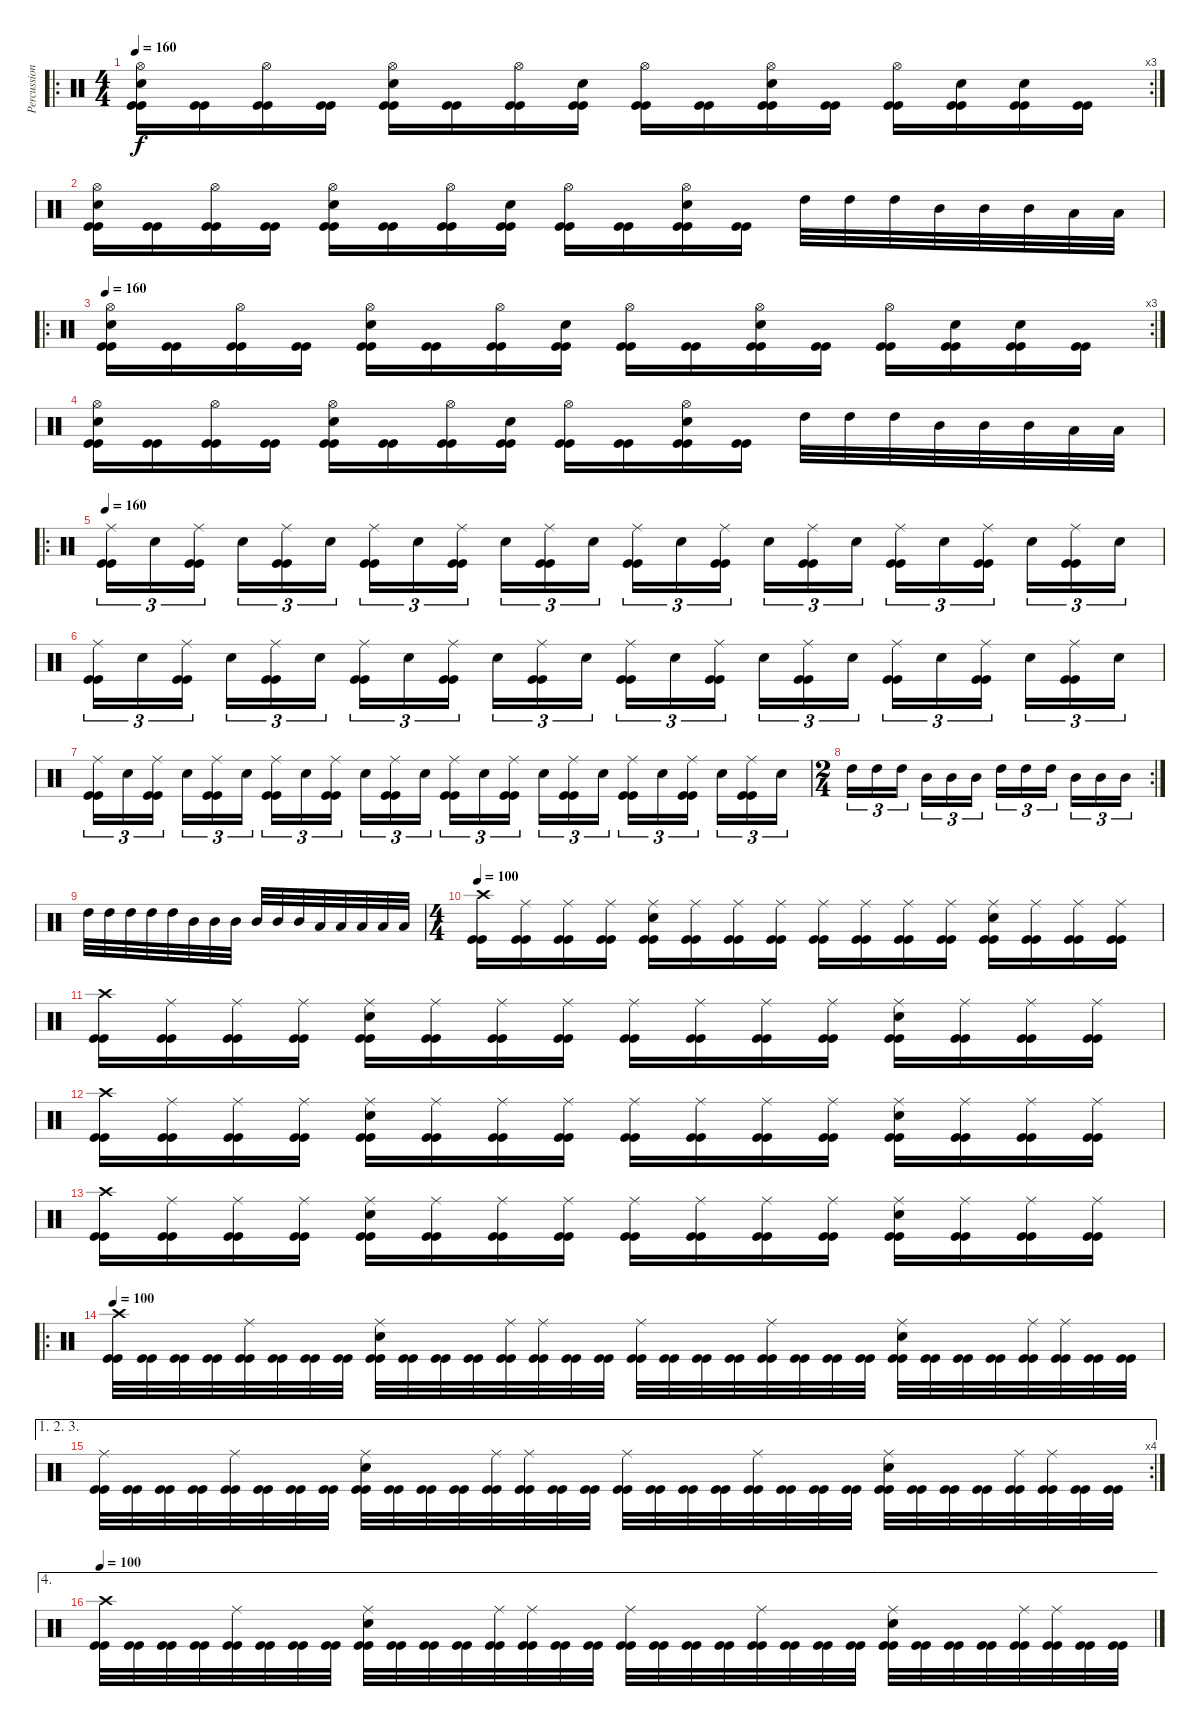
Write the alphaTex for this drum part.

\track ("Percussion" "Percussion") {instrument percussion}
\staff {score}
\articulation defaults
\ro
\rc 3
\ts (4 4)
\tempo 160
\clef neutral
\ks c
("Hi-Hat (open)" "Snare (hit) 2" "Kick (hit)" "Kick (hit)").16{dy f} ("Kick (hit)" "Kick (hit)").16 ("Hi-Hat (open)" "Kick (hit)" "Kick (hit)").16 ("Kick (hit)" "Kick (hit)").16 ("Hi-Hat (open)" "Snare (hit) 2" "Kick (hit)" "Kick (hit)").16 ("Kick (hit)" "Kick (hit)").16 ("Hi-Hat (open)" "Kick (hit)" "Kick (hit)").16 ("Snare (hit) 2" "Kick (hit)" "Kick (hit)").16 ("Hi-Hat (open)" "Kick (hit)" "Kick (hit)").16 ("Kick (hit)" "Kick (hit)").16 ("Hi-Hat (open)" "Snare (hit) 2" "Kick (hit)" "Kick (hit)").16 ("Kick (hit)" "Kick (hit)").16 ("Hi-Hat (open)" "Kick (hit)" "Kick (hit)").16 ("Snare (hit) 2" "Kick (hit)" "Kick (hit)").16 ("Snare (hit) 2" "Kick (hit)" "Kick (hit)").16 ("Kick (hit)" "Kick (hit)").16 |
("Hi-Hat (open)" "Snare (hit) 2" "Kick (hit)" "Kick (hit)").16 ("Kick (hit)" "Kick (hit)").16 ("Hi-Hat (open)" "Kick (hit)" "Kick (hit)").16 ("Kick (hit)" "Kick (hit)").16 ("Hi-Hat (open)" "Snare (hit) 2" "Kick (hit)" "Kick (hit)").16 ("Kick (hit)" "Kick (hit)").16 ("Hi-Hat (open)" "Kick (hit)" "Kick (hit)").16 ("Snare (hit) 2" "Kick (hit)" "Kick (hit)").16 ("Hi-Hat (open)" "Kick (hit)" "Kick (hit)").16 ("Kick (hit)" "Kick (hit)").16 ("Hi-Hat (open)" "Snare (hit) 2" "Kick (hit)" "Kick (hit)").16 ("Kick (hit)" "Kick (hit)").16 "High Tom (hit)".32 "High Tom (hit)".32 "High Tom (hit)".32 "Mid Tom (hit)".32 "Mid Tom (hit)".32 "Mid Tom (hit)".32 "Low Tom (hit)".32 "Low Tom (hit)".32 |
\ro
\rc 3
\tempo 160
("Hi-Hat (open)" "Snare (hit) 2" "Kick (hit)" "Kick (hit)").16 ("Kick (hit)" "Kick (hit)").16 ("Hi-Hat (open)" "Kick (hit)" "Kick (hit)").16 ("Kick (hit)" "Kick (hit)").16 ("Hi-Hat (open)" "Snare (hit) 2" "Kick (hit)" "Kick (hit)").16 ("Kick (hit)" "Kick (hit)").16 ("Hi-Hat (open)" "Kick (hit)" "Kick (hit)").16 ("Snare (hit) 2" "Kick (hit)" "Kick (hit)").16 ("Hi-Hat (open)" "Kick (hit)" "Kick (hit)").16 ("Kick (hit)" "Kick (hit)").16 ("Hi-Hat (open)" "Snare (hit) 2" "Kick (hit)" "Kick (hit)").16 ("Kick (hit)" "Kick (hit)").16 ("Hi-Hat (open)" "Kick (hit)" "Kick (hit)").16 ("Snare (hit) 2" "Kick (hit)" "Kick (hit)").16 ("Snare (hit) 2" "Kick (hit)" "Kick (hit)").16 ("Kick (hit)" "Kick (hit)").16 |
("Hi-Hat (open)" "Snare (hit) 2" "Kick (hit)" "Kick (hit)").16 ("Kick (hit)" "Kick (hit)").16 ("Hi-Hat (open)" "Kick (hit)" "Kick (hit)").16 ("Kick (hit)" "Kick (hit)").16 ("Hi-Hat (open)" "Snare (hit) 2" "Kick (hit)" "Kick (hit)").16 ("Kick (hit)" "Kick (hit)").16 ("Hi-Hat (open)" "Kick (hit)" "Kick (hit)").16 ("Snare (hit) 2" "Kick (hit)" "Kick (hit)").16 ("Hi-Hat (open)" "Kick (hit)" "Kick (hit)").16 ("Kick (hit)" "Kick (hit)").16 ("Hi-Hat (open)" "Snare (hit) 2" "Kick (hit)" "Kick (hit)").16 ("Kick (hit)" "Kick (hit)").16 "High Tom (hit)".32 "High Tom (hit)".32 "High Tom (hit)".32 "Mid Tom (hit)".32 "Mid Tom (hit)".32 "Mid Tom (hit)".32 "Low Tom (hit)".32 "Low Tom (hit)".32 |
\ro
\tempo 160
("Ride (middle)" "Kick (hit)" "Kick (hit)").16{tu (3 2)} "Snare (hit) 2".16{tu (3 2)} ("Ride (middle)" "Kick (hit)" "Kick (hit)").16{tu (3 2)} "Snare (hit) 2".16{tu (3 2)} ("Ride (middle)" "Kick (hit)" "Kick (hit)").16{tu (3 2)} "Snare (hit) 2".16{tu (3 2)} ("Ride (middle)" "Kick (hit)" "Kick (hit)").16{tu (3 2)} "Snare (hit) 2".16{tu (3 2)} ("Ride (middle)" "Kick (hit)" "Kick (hit)").16{tu (3 2)} "Snare (hit) 2".16{tu (3 2)} ("Ride (middle)" "Kick (hit)" "Kick (hit)").16{tu (3 2)} "Snare (hit) 2".16{tu (3 2)} ("Ride (middle)" "Kick (hit)" "Kick (hit)").16{tu (3 2)} "Snare (hit) 2".16{tu (3 2)} ("Ride (middle)" "Kick (hit)" "Kick (hit)").16{tu (3 2)} "Snare (hit) 2".16{tu (3 2)} ("Ride (middle)" "Kick (hit)" "Kick (hit)").16{tu (3 2)} "Snare (hit) 2".16{tu (3 2)} ("Ride (middle)" "Kick (hit)" "Kick (hit)").16{tu (3 2)} "Snare (hit) 2".16{tu (3 2)} ("Ride (middle)" "Kick (hit)" "Kick (hit)").16{tu (3 2)} "Snare (hit) 2".16{tu (3 2)} ("Ride (middle)" "Kick (hit)" "Kick (hit)").16{tu (3 2)} "Snare (hit) 2".16{tu (3 2)} |
("Ride (middle)" "Kick (hit)" "Kick (hit)").16{tu (3 2)} "Snare (hit) 2".16{tu (3 2)} ("Ride (middle)" "Kick (hit)" "Kick (hit)").16{tu (3 2)} "Snare (hit) 2".16{tu (3 2)} ("Ride (middle)" "Kick (hit)" "Kick (hit)").16{tu (3 2)} "Snare (hit) 2".16{tu (3 2)} ("Ride (middle)" "Kick (hit)" "Kick (hit)").16{tu (3 2)} "Snare (hit) 2".16{tu (3 2)} ("Ride (middle)" "Kick (hit)" "Kick (hit)").16{tu (3 2)} "Snare (hit) 2".16{tu (3 2)} ("Ride (middle)" "Kick (hit)" "Kick (hit)").16{tu (3 2)} "Snare (hit) 2".16{tu (3 2)} ("Ride (middle)" "Kick (hit)" "Kick (hit)").16{tu (3 2)} "Snare (hit) 2".16{tu (3 2)} ("Ride (middle)" "Kick (hit)" "Kick (hit)").16{tu (3 2)} "Snare (hit) 2".16{tu (3 2)} ("Ride (middle)" "Kick (hit)" "Kick (hit)").16{tu (3 2)} "Snare (hit) 2".16{tu (3 2)} ("Ride (middle)" "Kick (hit)" "Kick (hit)").16{tu (3 2)} "Snare (hit) 2".16{tu (3 2)} ("Ride (middle)" "Kick (hit)" "Kick (hit)").16{tu (3 2)} "Snare (hit) 2".16{tu (3 2)} ("Ride (middle)" "Kick (hit)" "Kick (hit)").16{tu (3 2)} "Snare (hit) 2".16{tu (3 2)} |
("Ride (middle)" "Kick (hit)" "Kick (hit)").16{tu (3 2)} "Snare (hit) 2".16{tu (3 2)} ("Ride (middle)" "Kick (hit)" "Kick (hit)").16{tu (3 2)} "Snare (hit) 2".16{tu (3 2)} ("Ride (middle)" "Kick (hit)" "Kick (hit)").16{tu (3 2)} "Snare (hit) 2".16{tu (3 2)} ("Ride (middle)" "Kick (hit)" "Kick (hit)").16{tu (3 2)} "Snare (hit) 2".16{tu (3 2)} ("Ride (middle)" "Kick (hit)" "Kick (hit)").16{tu (3 2)} "Snare (hit) 2".16{tu (3 2)} ("Ride (middle)" "Kick (hit)" "Kick (hit)").16{tu (3 2)} "Snare (hit) 2".16{tu (3 2)} ("Ride (middle)" "Kick (hit)" "Kick (hit)").16{tu (3 2)} "Snare (hit) 2".16{tu (3 2)} ("Ride (middle)" "Kick (hit)" "Kick (hit)").16{tu (3 2)} "Snare (hit) 2".16{tu (3 2)} ("Ride (middle)" "Kick (hit)" "Kick (hit)").16{tu (3 2)} "Snare (hit) 2".16{tu (3 2)} ("Ride (middle)" "Kick (hit)" "Kick (hit)").16{tu (3 2)} "Snare (hit) 2".16{tu (3 2)} ("Ride (middle)" "Kick (hit)" "Kick (hit)").16{tu (3 2)} "Snare (hit) 2".16{tu (3 2)} ("Ride (middle)" "Kick (hit)" "Kick (hit)").16{tu (3 2)} "Snare (hit) 2".16{tu (3 2)} |
\rc 2
\ts (2 4)
"High Tom (hit)".16{tu (3 2)} "High Tom (hit)".16{tu (3 2)} "High Tom (hit)".16{tu (3 2)} "Mid Tom (hit)".16{tu (3 2)} "Mid Tom (hit)".16{tu (3 2)} "Mid Tom (hit)".16{tu (3 2)} "High Tom (hit)".16{tu (3 2)} "High Tom (hit)".16{tu (3 2)} "High Tom (hit)".16{tu (3 2)} "Mid Tom (hit)".16{tu (3 2)} "Mid Tom (hit)".16{tu (3 2)} "Mid Tom (hit)".16{tu (3 2)} |
"High Tom (hit)".32 "High Tom (hit)".32 "High Tom (hit)".32 "High Tom (hit)".32 "High Tom (hit)".32 "Mid Tom (hit)".32 "Mid Tom (hit)".32 "Mid Tom (hit)".32 "Mid Tom (hit)".32 "Mid Tom (hit)".32 "Mid Tom (hit)".32 "Low Tom (hit)".32 "Low Tom (hit)".32 "Low Tom (hit)".32 "Low Tom (hit)".32 "Low Tom (hit)".32 |
\ts (4 4)
\tempo 100
("Crash high (hit)" "Kick (hit)" "Kick (hit)").16 ("Ride (middle)" "Kick (hit)" "Kick (hit)").16 ("Ride (middle)" "Kick (hit)" "Kick (hit)").16 ("Ride (middle)" "Kick (hit)" "Kick (hit)").16 ("Ride (middle)" "Snare (hit) 2" "Kick (hit)" "Kick (hit)").16 ("Ride (middle)" "Kick (hit)" "Kick (hit)").16 ("Ride (middle)" "Kick (hit)" "Kick (hit)").16 ("Ride (middle)" "Kick (hit)" "Kick (hit)").16 ("Ride (middle)" "Kick (hit)" "Kick (hit)").16 ("Ride (middle)" "Kick (hit)" "Kick (hit)").16 ("Ride (middle)" "Kick (hit)" "Kick (hit)").16 ("Ride (middle)" "Kick (hit)" "Kick (hit)").16 ("Ride (middle)" "Snare (hit) 2" "Kick (hit)" "Kick (hit)").16 ("Ride (middle)" "Kick (hit)" "Kick (hit)").16 ("Ride (middle)" "Kick (hit)" "Kick (hit)").16 ("Ride (middle)" "Kick (hit)" "Kick (hit)").16 |
("Crash high (hit)" "Kick (hit)" "Kick (hit)").16 ("Ride (middle)" "Kick (hit)" "Kick (hit)").16 ("Ride (middle)" "Kick (hit)" "Kick (hit)").16 ("Ride (middle)" "Kick (hit)" "Kick (hit)").16 ("Ride (middle)" "Snare (hit) 2" "Kick (hit)" "Kick (hit)").16 ("Ride (middle)" "Kick (hit)" "Kick (hit)").16 ("Ride (middle)" "Kick (hit)" "Kick (hit)").16 ("Ride (middle)" "Kick (hit)" "Kick (hit)").16 ("Ride (middle)" "Kick (hit)" "Kick (hit)").16 ("Ride (middle)" "Kick (hit)" "Kick (hit)").16 ("Ride (middle)" "Kick (hit)" "Kick (hit)").16 ("Ride (middle)" "Kick (hit)" "Kick (hit)").16 ("Ride (middle)" "Snare (hit) 2" "Kick (hit)" "Kick (hit)").16 ("Ride (middle)" "Kick (hit)" "Kick (hit)").16 ("Ride (middle)" "Kick (hit)" "Kick (hit)").16 ("Ride (middle)" "Kick (hit)" "Kick (hit)").16 |
("Crash high (hit)" "Kick (hit)" "Kick (hit)").16 ("Ride (middle)" "Kick (hit)" "Kick (hit)").16 ("Ride (middle)" "Kick (hit)" "Kick (hit)").16 ("Ride (middle)" "Kick (hit)" "Kick (hit)").16 ("Ride (middle)" "Snare (hit) 2" "Kick (hit)" "Kick (hit)").16 ("Ride (middle)" "Kick (hit)" "Kick (hit)").16 ("Ride (middle)" "Kick (hit)" "Kick (hit)").16 ("Ride (middle)" "Kick (hit)" "Kick (hit)").16 ("Ride (middle)" "Kick (hit)" "Kick (hit)").16 ("Ride (middle)" "Kick (hit)" "Kick (hit)").16 ("Ride (middle)" "Kick (hit)" "Kick (hit)").16 ("Ride (middle)" "Kick (hit)" "Kick (hit)").16 ("Ride (middle)" "Snare (hit) 2" "Kick (hit)" "Kick (hit)").16 ("Ride (middle)" "Kick (hit)" "Kick (hit)").16 ("Ride (middle)" "Kick (hit)" "Kick (hit)").16 ("Ride (middle)" "Kick (hit)" "Kick (hit)").16 |
("Crash high (hit)" "Kick (hit)" "Kick (hit)").16 ("Ride (middle)" "Kick (hit)" "Kick (hit)").16 ("Ride (middle)" "Kick (hit)" "Kick (hit)").16 ("Ride (middle)" "Kick (hit)" "Kick (hit)").16 ("Ride (middle)" "Snare (hit) 2" "Kick (hit)" "Kick (hit)").16 ("Ride (middle)" "Kick (hit)" "Kick (hit)").16 ("Ride (middle)" "Kick (hit)" "Kick (hit)").16 ("Ride (middle)" "Kick (hit)" "Kick (hit)").16 ("Ride (middle)" "Kick (hit)" "Kick (hit)").16 ("Ride (middle)" "Kick (hit)" "Kick (hit)").16 ("Ride (middle)" "Kick (hit)" "Kick (hit)").16 ("Ride (middle)" "Kick (hit)" "Kick (hit)").16 ("Ride (middle)" "Snare (hit) 2" "Kick (hit)" "Kick (hit)").16 ("Ride (middle)" "Kick (hit)" "Kick (hit)").16 ("Ride (middle)" "Kick (hit)" "Kick (hit)").16 ("Ride (middle)" "Kick (hit)" "Kick (hit)").16 |
\ro
\tempo 100
("Crash high (hit)" "Kick (hit)" "Kick (hit)").32 ("Kick (hit)" "Kick (hit)").32 ("Kick (hit)" "Kick (hit)").32 ("Kick (hit)" "Kick (hit)").32 ("Ride (middle)" "Kick (hit)" "Kick (hit)").32 ("Kick (hit)" "Kick (hit)").32 ("Kick (hit)" "Kick (hit)").32 ("Kick (hit)" "Kick (hit)").32 ("Ride (middle)" "Snare (hit) 2" "Kick (hit)" "Kick (hit)").32 ("Kick (hit)" "Kick (hit)").32 ("Kick (hit)" "Kick (hit)").32 ("Kick (hit)" "Kick (hit)").32 ("Ride (middle)" "Kick (hit)" "Kick (hit)").32 ("Ride (middle)" "Kick (hit)" "Kick (hit)").32 ("Kick (hit)" "Kick (hit)").32 ("Kick (hit)" "Kick (hit)").32 ("Ride (middle)" "Kick (hit)" "Kick (hit)").32 ("Kick (hit)" "Kick (hit)").32 ("Kick (hit)" "Kick (hit)").32 ("Kick (hit)" "Kick (hit)").32 ("Ride (middle)" "Kick (hit)" "Kick (hit)").32 ("Kick (hit)" "Kick (hit)").32 ("Kick (hit)" "Kick (hit)").32 ("Kick (hit)" "Kick (hit)").32 ("Ride (middle)" "Snare (hit) 2" "Kick (hit)" "Kick (hit)").32 ("Kick (hit)" "Kick (hit)").32 ("Kick (hit)" "Kick (hit)").32 ("Kick (hit)" "Kick (hit)").32 ("Ride (middle)" "Kick (hit)" "Kick (hit)").32 ("Ride (middle)" "Kick (hit)" "Kick (hit)").32 ("Kick (hit)" "Kick (hit)").32 ("Kick (hit)" "Kick (hit)").32 |
\ae (1 2 3)
\rc 4
("Ride (middle)" "Kick (hit)" "Kick (hit)").32 ("Kick (hit)" "Kick (hit)").32 ("Kick (hit)" "Kick (hit)").32 ("Kick (hit)" "Kick (hit)").32 ("Ride (middle)" "Kick (hit)" "Kick (hit)").32 ("Kick (hit)" "Kick (hit)").32 ("Kick (hit)" "Kick (hit)").32 ("Kick (hit)" "Kick (hit)").32 ("Ride (middle)" "Snare (hit) 2" "Kick (hit)" "Kick (hit)").32 ("Kick (hit)" "Kick (hit)").32 ("Kick (hit)" "Kick (hit)").32 ("Kick (hit)" "Kick (hit)").32 ("Ride (middle)" "Kick (hit)" "Kick (hit)").32 ("Ride (middle)" "Kick (hit)" "Kick (hit)").32 ("Kick (hit)" "Kick (hit)").32 ("Kick (hit)" "Kick (hit)").32 ("Ride (middle)" "Kick (hit)" "Kick (hit)").32 ("Kick (hit)" "Kick (hit)").32 ("Kick (hit)" "Kick (hit)").32 ("Kick (hit)" "Kick (hit)").32 ("Ride (middle)" "Kick (hit)" "Kick (hit)").32 ("Kick (hit)" "Kick (hit)").32 ("Kick (hit)" "Kick (hit)").32 ("Kick (hit)" "Kick (hit)").32 ("Ride (middle)" "Snare (hit) 2" "Kick (hit)" "Kick (hit)").32 ("Kick (hit)" "Kick (hit)").32 ("Kick (hit)" "Kick (hit)").32 ("Kick (hit)" "Kick (hit)").32 ("Ride (middle)" "Kick (hit)" "Kick (hit)").32 ("Ride (middle)" "Kick (hit)" "Kick (hit)").32 ("Kick (hit)" "Kick (hit)").32 ("Kick (hit)" "Kick (hit)").32 |
\ae 4
\tempo 100
("Crash high (hit)" "Kick (hit)" "Kick (hit)").32 ("Kick (hit)" "Kick (hit)").32 ("Kick (hit)" "Kick (hit)").32 ("Kick (hit)" "Kick (hit)").32 ("Ride (middle)" "Kick (hit)" "Kick (hit)").32 ("Kick (hit)" "Kick (hit)").32 ("Kick (hit)" "Kick (hit)").32 ("Kick (hit)" "Kick (hit)").32 ("Ride (middle)" "Snare (hit) 2" "Kick (hit)" "Kick (hit)").32 ("Kick (hit)" "Kick (hit)").32 ("Kick (hit)" "Kick (hit)").32 ("Kick (hit)" "Kick (hit)").32 ("Ride (middle)" "Kick (hit)" "Kick (hit)").32 ("Ride (middle)" "Kick (hit)" "Kick (hit)").32 ("Kick (hit)" "Kick (hit)").32 ("Kick (hit)" "Kick (hit)").32 ("Ride (middle)" "Kick (hit)" "Kick (hit)").32 ("Kick (hit)" "Kick (hit)").32 ("Kick (hit)" "Kick (hit)").32 ("Kick (hit)" "Kick (hit)").32 ("Ride (middle)" "Kick (hit)" "Kick (hit)").32 ("Kick (hit)" "Kick (hit)").32 ("Kick (hit)" "Kick (hit)").32 ("Kick (hit)" "Kick (hit)").32 ("Ride (middle)" "Snare (hit) 2" "Kick (hit)" "Kick (hit)").32 ("Kick (hit)" "Kick (hit)").32 ("Kick (hit)" "Kick (hit)").32 ("Kick (hit)" "Kick (hit)").32 ("Ride (middle)" "Kick (hit)" "Kick (hit)").32 ("Ride (middle)" "Kick (hit)" "Kick (hit)").32 ("Kick (hit)" "Kick (hit)").32 ("Kick (hit)" "Kick (hit)").32
